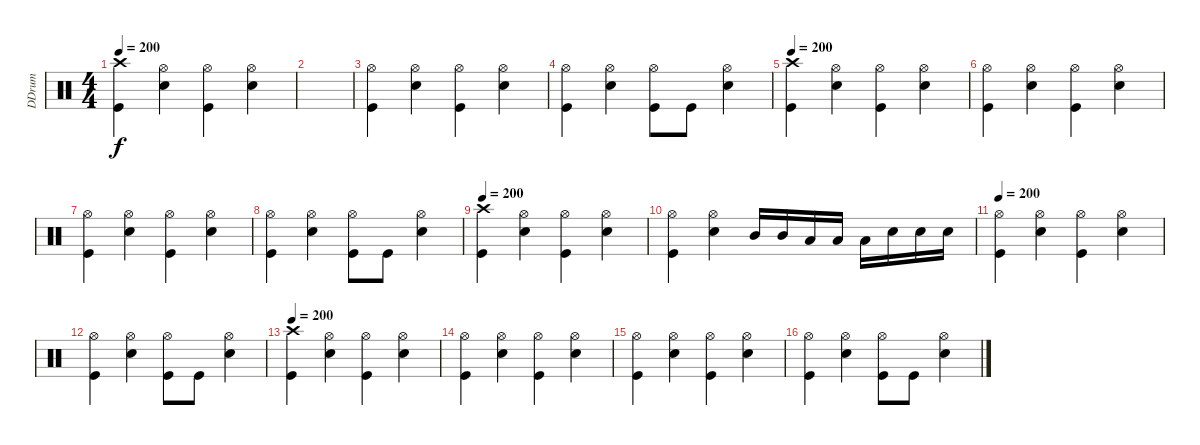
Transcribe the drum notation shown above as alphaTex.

\track ("DDrum" "DDrum") {instrument percussion}
\staff {score}
\articulation defaults
\ts (4 4)
\tempo 200
\clef neutral
\ks c
("Crash high (hit)" "Kick (hit)").4{dy f} ("Hi-Hat (open)" "Electric Snare (hit)").4 ("Hi-Hat (open)" "Kick (hit)").4 ("Hi-Hat (open)" "Electric Snare (hit)").4 |
|
("Hi-Hat (open)" "Kick (hit)").4 ("Hi-Hat (open)" "Electric Snare (hit)").4 ("Hi-Hat (open)" "Kick (hit)").4 ("Hi-Hat (open)" "Electric Snare (hit)").4 |
("Hi-Hat (open)" "Kick (hit)").4 ("Hi-Hat (open)" "Electric Snare (hit)").4 ("Hi-Hat (open)" "Kick (hit)").8 "Kick (hit)".8 ("Hi-Hat (open)" "Electric Snare (hit)").4 |
\tempo 200
("Crash high (hit)" "Kick (hit)").4 ("Hi-Hat (open)" "Electric Snare (hit)").4 ("Hi-Hat (open)" "Kick (hit)").4 ("Hi-Hat (open)" "Electric Snare (hit)").4 |
("Hi-Hat (open)" "Kick (hit)").4 ("Hi-Hat (open)" "Electric Snare (hit)").4 ("Hi-Hat (open)" "Kick (hit)").4 ("Hi-Hat (open)" "Electric Snare (hit)").4 |
("Hi-Hat (open)" "Kick (hit)").4 ("Hi-Hat (open)" "Electric Snare (hit)").4 ("Hi-Hat (open)" "Kick (hit)").4 ("Hi-Hat (open)" "Electric Snare (hit)").4 |
("Hi-Hat (open)" "Kick (hit)").4 ("Hi-Hat (open)" "Electric Snare (hit)").4 ("Hi-Hat (open)" "Kick (hit)").8 "Kick (hit)".8 ("Hi-Hat (open)" "Electric Snare (hit)").4 |
\tempo 200
("Crash high (hit)" "Kick (hit)").4 ("Hi-Hat (open)" "Electric Snare (hit)").4 ("Hi-Hat (open)" "Kick (hit)").4 ("Hi-Hat (open)" "Electric Snare (hit)").4 |
("Hi-Hat (open)" "Kick (hit)").4 ("Hi-Hat (open)" "Electric Snare (hit)").4 "Mid Tom (hit)".16 "Mid Tom (hit)".16 "Low Tom (hit)".16 "Low Tom (hit)".16 "Low Tom (hit)".16 "Electric Snare (hit)".16 "Electric Snare (hit)".16 "Electric Snare (hit)".16 |
\tempo 200
("Hi-Hat (open)" "Kick (hit)").4 ("Hi-Hat (open)" "Electric Snare (hit)").4 ("Hi-Hat (open)" "Kick (hit)").4 ("Hi-Hat (open)" "Electric Snare (hit)").4 |
("Hi-Hat (open)" "Kick (hit)").4 ("Hi-Hat (open)" "Electric Snare (hit)").4 ("Hi-Hat (open)" "Kick (hit)").8 "Kick (hit)".8 ("Hi-Hat (open)" "Electric Snare (hit)").4 |
\tempo 200
("Crash high (hit)" "Kick (hit)").4 ("Hi-Hat (open)" "Electric Snare (hit)").4 ("Hi-Hat (open)" "Kick (hit)").4 ("Hi-Hat (open)" "Electric Snare (hit)").4 |
("Hi-Hat (open)" "Kick (hit)").4 ("Hi-Hat (open)" "Electric Snare (hit)").4 ("Hi-Hat (open)" "Kick (hit)").4 ("Hi-Hat (open)" "Electric Snare (hit)").4 |
("Hi-Hat (open)" "Kick (hit)").4 ("Hi-Hat (open)" "Electric Snare (hit)").4 ("Hi-Hat (open)" "Kick (hit)").4 ("Hi-Hat (open)" "Electric Snare (hit)").4 |
("Hi-Hat (open)" "Kick (hit)").4 ("Hi-Hat (open)" "Electric Snare (hit)").4 ("Hi-Hat (open)" "Kick (hit)").8 "Kick (hit)".8 ("Hi-Hat (open)" "Electric Snare (hit)").4
